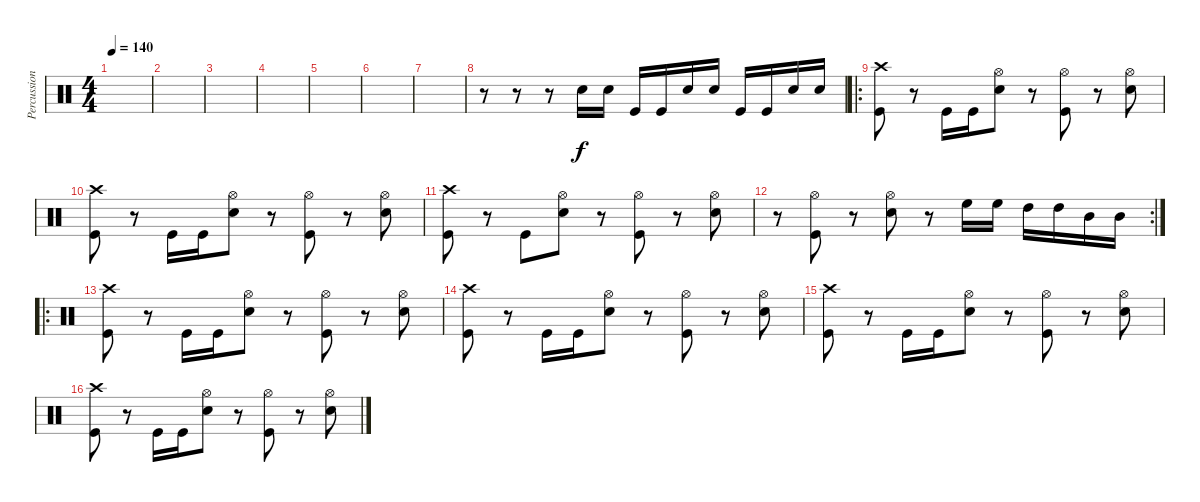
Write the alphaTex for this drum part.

\track ("Percussion" "Percussion") {instrument percussion}
\staff {score}
\articulation defaults
\ts (4 4)
\tempo 140
\clef neutral
\ks c
|
|
|
|
|
|
|
r.8 r.8 r.8 "Electric Snare (hit)".16 "Electric Snare (hit)".16 "Kick (hit)".16 "Kick (hit)".16 "Electric Snare (hit)".16 "Electric Snare (hit)".16 "Kick (hit)".16 "Kick (hit)".16 "Electric Snare (hit)".16 "Electric Snare (hit)".16 |
\ro
("Crash high (hit)" "Kick (hit)").8 r.8 "Kick (hit)".16 "Kick (hit)".16 ("Hi-Hat (open)" "Electric Snare (hit)").8 r.8 ("Hi-Hat (open)" "Kick (hit)").8 r.8 ("Hi-Hat (open)" "Electric Snare (hit)").8 |
("Crash high (hit)" "Kick (hit)").8 r.8 "Kick (hit)".16 "Kick (hit)".16 ("Hi-Hat (open)" "Electric Snare (hit)").8 r.8 ("Hi-Hat (open)" "Kick (hit)").8 r.8 ("Hi-Hat (open)" "Electric Snare (hit)").8 |
("Crash high (hit)" "Kick (hit)").8 r.8 "Kick (hit)".8 ("Hi-Hat (open)" "Electric Snare (hit)").8 r.8 ("Hi-Hat (open)" "Kick (hit)").8 r.8 ("Hi-Hat (open)" "Electric Snare (hit)").8 |
\rc 2
r.8 ("Hi-Hat (open)" "Kick (hit)").8 r.8 ("Hi-Hat (open)" "Electric Snare (hit)").8 r.8 "High Floor Tom (hit)".16 "High Floor Tom (hit)".16 "High Tom (hit)".16 "High Tom (hit)".16 "Mid Tom (hit)".16 "Mid Tom (hit)".16 |
\ro
("Crash high (hit)" "Kick (hit)").8 r.8 "Kick (hit)".16 "Kick (hit)".16 ("Hi-Hat (open)" "Electric Snare (hit)").8 r.8 ("Hi-Hat (open)" "Kick (hit)").8 r.8 ("Hi-Hat (open)" "Electric Snare (hit)").8 |
("Crash high (hit)" "Kick (hit)").8 r.8 "Kick (hit)".16 "Kick (hit)".16 ("Hi-Hat (open)" "Electric Snare (hit)").8 r.8 ("Hi-Hat (open)" "Kick (hit)").8 r.8 ("Hi-Hat (open)" "Electric Snare (hit)").8 |
("Crash high (hit)" "Kick (hit)").8 r.8 "Kick (hit)".16 "Kick (hit)".16 ("Hi-Hat (open)" "Electric Snare (hit)").8 r.8 ("Hi-Hat (open)" "Kick (hit)").8 r.8 ("Hi-Hat (open)" "Electric Snare (hit)").8 |
("Crash high (hit)" "Kick (hit)").8 r.8 "Kick (hit)".16 "Kick (hit)".16 ("Hi-Hat (open)" "Electric Snare (hit)").8 r.8 ("Hi-Hat (open)" "Kick (hit)").8 r.8 ("Hi-Hat (open)" "Electric Snare (hit)").8
